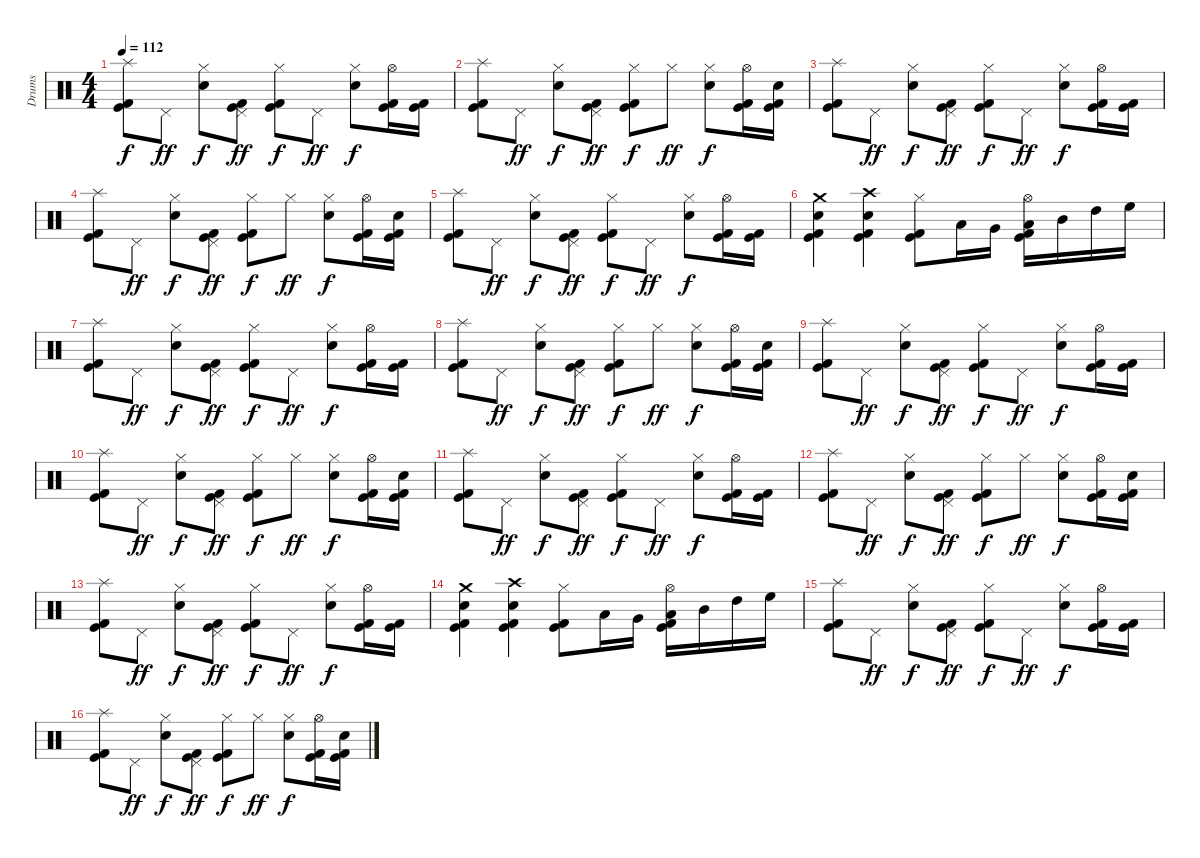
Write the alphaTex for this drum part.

\track ("Drums" "Drums") {instrument percussion}
\staff {score}
\articulation defaults
\ts (4 4)
\tempo 112
\clef neutral
\ks c
("Splash (hit)" "Kick (hit) 2" "Kick (hit)").8{dy f} "Pedal Hi-Hat (hit)".8{dy ff} ("Hi-Hat (closed)" "Electric Snare (hit)").8{dy f} ("Pedal Hi-Hat (hit)" "Kick (hit)" "Kick (hit) 2").8{dy ff} ("Hi-Hat (closed)" "Kick (hit)" "Kick (hit) 2").8{dy f} "Pedal Hi-Hat (hit)".8{dy ff} ("Hi-Hat (closed)" "Electric Snare (hit)").8{dy f} ("Hi-Hat (open)" "Kick (hit) 2" "Kick (hit)").16 ("Kick (hit) 2" "Kick (hit)").16 |
("Splash (hit)" "Kick (hit) 2" "Kick (hit)").8 "Pedal Hi-Hat (hit)".8{dy ff} ("Hi-Hat (closed)" "Electric Snare (hit)").8{dy f} ("Pedal Hi-Hat (hit)" "Kick (hit)" "Kick (hit) 2").8{dy ff} ("Hi-Hat (closed)" "Kick (hit)" "Kick (hit) 2").8{dy f} "Hi-Hat (closed)".8{dy ff} ("Hi-Hat (closed)" "Electric Snare (hit)").8{dy f} ("Hi-Hat (open)" "Kick (hit) 2" "Kick (hit)").16 ("Electric Snare (hit)" "Kick (hit) 2" "Kick (hit)").16 |
("Splash (hit)" "Kick (hit) 2" "Kick (hit)").8 "Pedal Hi-Hat (hit)".8{dy ff} ("Hi-Hat (closed)" "Electric Snare (hit)").8{dy f} ("Pedal Hi-Hat (hit)" "Kick (hit)" "Kick (hit) 2").8{dy ff} ("Hi-Hat (closed)" "Kick (hit)" "Kick (hit) 2").8{dy f} "Pedal Hi-Hat (hit)".8{dy ff} ("Hi-Hat (closed)" "Electric Snare (hit)").8{dy f} ("Hi-Hat (open)" "Kick (hit) 2" "Kick (hit)").16 ("Kick (hit) 2" "Kick (hit)").16 |
("Splash (hit)" "Kick (hit) 2" "Kick (hit)").8 "Pedal Hi-Hat (hit)".8{dy ff} ("Hi-Hat (closed)" "Electric Snare (hit)").8{dy f} ("Pedal Hi-Hat (hit)" "Kick (hit)" "Kick (hit) 2").8{dy ff} ("Hi-Hat (closed)" "Kick (hit)" "Kick (hit) 2").8{dy f} "Hi-Hat (closed)".8{dy ff} ("Hi-Hat (closed)" "Electric Snare (hit)").8{dy f} ("Hi-Hat (open)" "Kick (hit) 2" "Kick (hit)").16 ("Electric Snare (hit)" "Kick (hit) 2" "Kick (hit)").16 |
("Splash (hit)" "Kick (hit) 2" "Kick (hit)").8 "Pedal Hi-Hat (hit)".8{dy ff} ("Hi-Hat (closed)" "Electric Snare (hit)").8{dy f} ("Pedal Hi-Hat (hit)" "Kick (hit)" "Kick (hit) 2").8{dy ff} ("Hi-Hat (closed)" "Kick (hit)" "Kick (hit) 2").8{dy f} "Pedal Hi-Hat (hit)".8{dy ff} ("Hi-Hat (closed)" "Electric Snare (hit)").8{dy f} ("Hi-Hat (open)" "Kick (hit) 2" "Kick (hit)").16 ("Kick (hit) 2" "Kick (hit)").16 |
("Crash medium (hit)" "Electric Snare (hit)" "Kick (hit) 2" "Kick (hit)").4 ("Crash high (hit)" "Electric Snare (hit)" "Kick (hit) 2" "Kick (hit)").4 ("Hi-Hat (closed)" "Kick (hit) 2" "Kick (hit)").8 "Low Tom (hit)".16 "Very Low Tom (hit)".16 ("Hi-Hat (open)" "Low Floor Tom (hit)" "Kick (hit) 2" "Kick (hit)").16 "Mid Tom (hit)".16 "High Tom (hit)".16 "High Floor Tom (hit)".16 |
("Splash (hit)" "Kick (hit) 2" "Kick (hit)").8 "Pedal Hi-Hat (hit)".8{dy ff} ("Hi-Hat (closed)" "Electric Snare (hit)").8{dy f} ("Pedal Hi-Hat (hit)" "Kick (hit)" "Kick (hit) 2").8{dy ff} ("Hi-Hat (closed)" "Kick (hit)" "Kick (hit) 2").8{dy f} "Pedal Hi-Hat (hit)".8{dy ff} ("Hi-Hat (closed)" "Electric Snare (hit)").8{dy f} ("Hi-Hat (open)" "Kick (hit) 2" "Kick (hit)").16 ("Kick (hit) 2" "Kick (hit)").16 |
("Splash (hit)" "Kick (hit) 2" "Kick (hit)").8 "Pedal Hi-Hat (hit)".8{dy ff} ("Hi-Hat (closed)" "Electric Snare (hit)").8{dy f} ("Pedal Hi-Hat (hit)" "Kick (hit)" "Kick (hit) 2").8{dy ff} ("Hi-Hat (closed)" "Kick (hit)" "Kick (hit) 2").8{dy f} "Hi-Hat (closed)".8{dy ff} ("Hi-Hat (closed)" "Electric Snare (hit)").8{dy f} ("Hi-Hat (open)" "Kick (hit) 2" "Kick (hit)").16 ("Electric Snare (hit)" "Kick (hit) 2" "Kick (hit)").16 |
("Splash (hit)" "Kick (hit) 2" "Kick (hit)").8 "Pedal Hi-Hat (hit)".8{dy ff} ("Hi-Hat (closed)" "Electric Snare (hit)").8{dy f} ("Pedal Hi-Hat (hit)" "Kick (hit)" "Kick (hit) 2").8{dy ff} ("Hi-Hat (closed)" "Kick (hit)" "Kick (hit) 2").8{dy f} "Pedal Hi-Hat (hit)".8{dy ff} ("Hi-Hat (closed)" "Electric Snare (hit)").8{dy f} ("Hi-Hat (open)" "Kick (hit) 2" "Kick (hit)").16 ("Kick (hit) 2" "Kick (hit)").16 |
("Splash (hit)" "Kick (hit) 2" "Kick (hit)").8 "Pedal Hi-Hat (hit)".8{dy ff} ("Hi-Hat (closed)" "Electric Snare (hit)").8{dy f} ("Pedal Hi-Hat (hit)" "Kick (hit)" "Kick (hit) 2").8{dy ff} ("Hi-Hat (closed)" "Kick (hit)" "Kick (hit) 2").8{dy f} "Hi-Hat (closed)".8{dy ff} ("Hi-Hat (closed)" "Electric Snare (hit)").8{dy f} ("Hi-Hat (open)" "Kick (hit) 2" "Kick (hit)").16 ("Electric Snare (hit)" "Kick (hit) 2" "Kick (hit)").16 |
("Splash (hit)" "Kick (hit) 2" "Kick (hit)").8 "Pedal Hi-Hat (hit)".8{dy ff} ("Hi-Hat (closed)" "Electric Snare (hit)").8{dy f} ("Pedal Hi-Hat (hit)" "Kick (hit)" "Kick (hit) 2").8{dy ff} ("Hi-Hat (closed)" "Kick (hit)" "Kick (hit) 2").8{dy f} "Pedal Hi-Hat (hit)".8{dy ff} ("Hi-Hat (closed)" "Electric Snare (hit)").8{dy f} ("Hi-Hat (open)" "Kick (hit) 2" "Kick (hit)").16 ("Kick (hit) 2" "Kick (hit)").16 |
("Splash (hit)" "Kick (hit) 2" "Kick (hit)").8 "Pedal Hi-Hat (hit)".8{dy ff} ("Hi-Hat (closed)" "Electric Snare (hit)").8{dy f} ("Pedal Hi-Hat (hit)" "Kick (hit)" "Kick (hit) 2").8{dy ff} ("Hi-Hat (closed)" "Kick (hit)" "Kick (hit) 2").8{dy f} "Hi-Hat (closed)".8{dy ff} ("Hi-Hat (closed)" "Electric Snare (hit)").8{dy f} ("Hi-Hat (open)" "Kick (hit) 2" "Kick (hit)").16 ("Electric Snare (hit)" "Kick (hit) 2" "Kick (hit)").16 |
("Splash (hit)" "Kick (hit) 2" "Kick (hit)").8 "Pedal Hi-Hat (hit)".8{dy ff} ("Hi-Hat (closed)" "Electric Snare (hit)").8{dy f} ("Pedal Hi-Hat (hit)" "Kick (hit)" "Kick (hit) 2").8{dy ff} ("Hi-Hat (closed)" "Kick (hit)" "Kick (hit) 2").8{dy f} "Pedal Hi-Hat (hit)".8{dy ff} ("Hi-Hat (closed)" "Electric Snare (hit)").8{dy f} ("Hi-Hat (open)" "Kick (hit) 2" "Kick (hit)").16 ("Kick (hit) 2" "Kick (hit)").16 |
("Crash medium (hit)" "Electric Snare (hit)" "Kick (hit) 2" "Kick (hit)").4 ("Crash high (hit)" "Electric Snare (hit)" "Kick (hit) 2" "Kick (hit)").4 ("Hi-Hat (closed)" "Kick (hit) 2" "Kick (hit)").8 "Low Tom (hit)".16 "Very Low Tom (hit)".16 ("Hi-Hat (open)" "Low Floor Tom (hit)" "Kick (hit) 2" "Kick (hit)").16 "Mid Tom (hit)".16 "High Tom (hit)".16 "High Floor Tom (hit)".16 |
("Splash (hit)" "Kick (hit) 2" "Kick (hit)").8 "Pedal Hi-Hat (hit)".8{dy ff} ("Hi-Hat (closed)" "Electric Snare (hit)").8{dy f} ("Pedal Hi-Hat (hit)" "Kick (hit)" "Kick (hit) 2").8{dy ff} ("Hi-Hat (closed)" "Kick (hit)" "Kick (hit) 2").8{dy f} "Pedal Hi-Hat (hit)".8{dy ff} ("Hi-Hat (closed)" "Electric Snare (hit)").8{dy f} ("Hi-Hat (open)" "Kick (hit) 2" "Kick (hit)").16 ("Kick (hit) 2" "Kick (hit)").16 |
("Splash (hit)" "Kick (hit) 2" "Kick (hit)").8 "Pedal Hi-Hat (hit)".8{dy ff} ("Hi-Hat (closed)" "Electric Snare (hit)").8{dy f} ("Pedal Hi-Hat (hit)" "Kick (hit)" "Kick (hit) 2").8{dy ff} ("Hi-Hat (closed)" "Kick (hit)" "Kick (hit) 2").8{dy f} "Hi-Hat (closed)".8{dy ff} ("Hi-Hat (closed)" "Electric Snare (hit)").8{dy f} ("Hi-Hat (open)" "Kick (hit) 2" "Kick (hit)").16 ("Electric Snare (hit)" "Kick (hit) 2" "Kick (hit)").16
